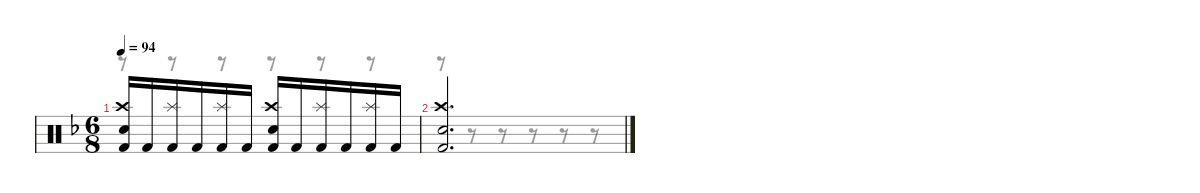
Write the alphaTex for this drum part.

\defaultSystemsLayout 4
\hideDynamics
\bracketExtendMode nobrackets
\singleTrackTrackNamePolicy hidden
\multiTrackTrackNamePolicy hidden
\otherSystemsTrackNameOrientation horizontal
\track ("M. Lopez" "drm.") {instrument percussion}
\staff {score}
\articulation defaults
\voice
\ts (6 8)
\tempo 94
\clef neutral
\ks dminor
("Crash high (hit)"{acc forcenatural} "Snare (hit) 2"{acc forcenatural} "Kick (hit) 2"{acc forcenatural}).16{dy f beam Up} "Kick (hit) 2"{acc forcenatural}.16{beam Up} ("Splash (hit)"{acc forcenatural} "Kick (hit) 2"{acc forcenatural}).16{dy mp beam Up} "Kick (hit) 2"{acc forcenatural}.16{dy f beam Up} ("Splash (hit)"{acc forcenatural} "Kick (hit) 2"{acc forcenatural}).16{dy mp beam Up} "Kick (hit) 2"{acc forcenatural}.16{dy f beam Up} ("Crash high (hit)"{acc forcenatural} "Snare (hit) 2"{acc forcenatural} "Kick (hit) 2"{acc forcenatural}).16{beam Up} "Kick (hit) 2"{acc forcenatural}.16{beam Up} ("Splash (hit)"{acc forcenatural} "Kick (hit) 2"{acc forcenatural}).16{dy mp beam Up} "Kick (hit) 2"{acc forcenatural}.16{dy f beam Up} ("Splash (hit)"{acc forcenatural} "Kick (hit) 2"{acc forcenatural}).16{dy mp beam Up} "Kick (hit) 2"{acc forcenatural}.16{dy f beam Up} |
("Crash high (hit)"{acc forcenatural} "Snare (hit) 2"{acc forcenatural} "Kick (hit) 2"{acc forcenatural}).2{d beam Up}
\voice
\clef neutral
\ottava regular
\simile none
\ks dminor
r.8{dy mf beam Down} r.8{beam Down} r.8{beam Down} r.8{beam Down} r.8{beam Down} r.8{beam Down} |
r.8{beam Down} r.8{beam Down} r.8{beam Down} r.8{beam Down} r.8{beam Down} r.8{beam Down}
